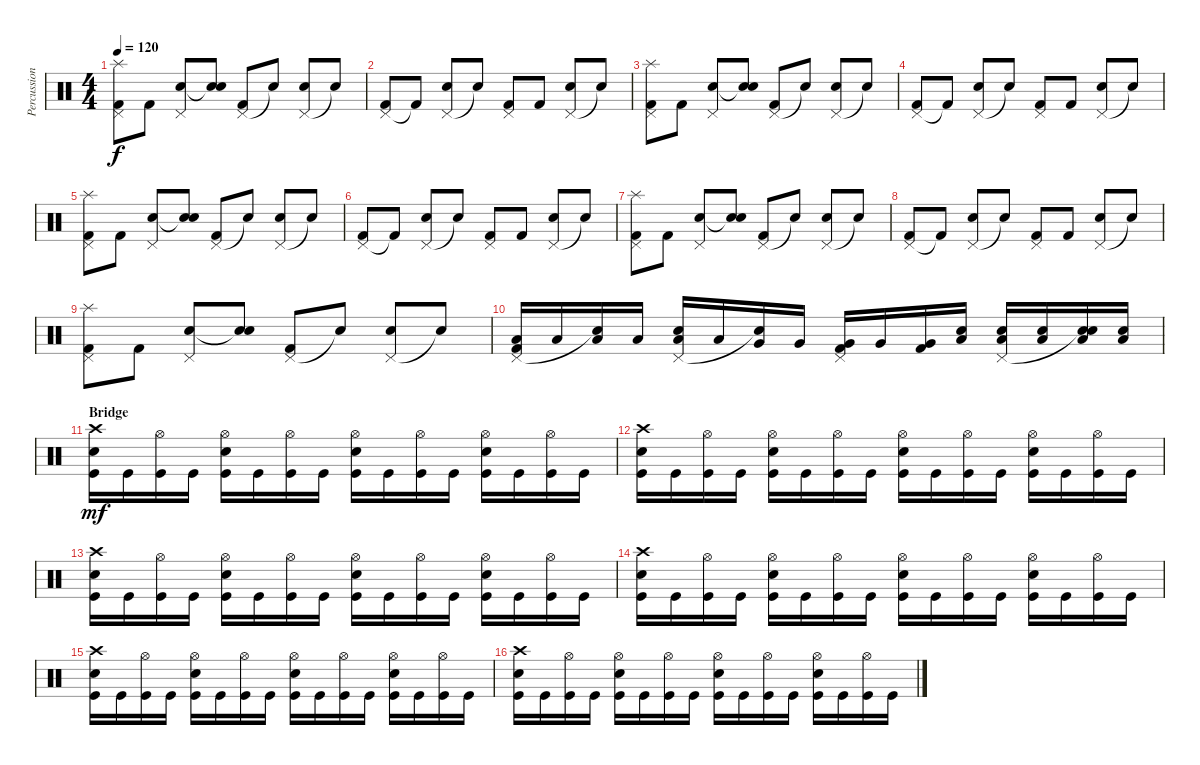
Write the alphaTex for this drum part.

\track ("Percussion" "Percussion") {instrument percussion}
\staff {score}
\articulation defaults
\ts (4 4)
\tempo 120
\clef neutral
\ks c
("Splash (hit)" "Pedal Hi-Hat (hit)" "Kick (hit) 2").8{dy f} "Kick (hit) 2".8 ("Pedal Hi-Hat (hit)" "Electric Snare (hit)").8 ("Snare (hit)" "Snare (hit)"{t}).8 ("Pedal Hi-Hat (hit)" "Kick (hit) 2").8 "Snare (hit)"{t}.8 ("Pedal Hi-Hat (hit)" "Electric Snare (hit)").8 "Snare (hit)"{t}.8 |
("Pedal Hi-Hat (hit)" "Kick (hit) 2").8 "Kick (hit) 2"{t}.8 ("Pedal Hi-Hat (hit)" "Electric Snare (hit)").8 "Snare (hit)"{t}.8 ("Pedal Hi-Hat (hit)" "Kick (hit) 2").8 "Kick (hit) 2".8 ("Pedal Hi-Hat (hit)" "Electric Snare (hit)").8 "Snare (hit)"{t}.8 |
("Splash (hit)" "Pedal Hi-Hat (hit)" "Kick (hit) 2").8 "Kick (hit) 2".8 ("Pedal Hi-Hat (hit)" "Electric Snare (hit)").8 ("Snare (hit)" "Snare (hit)"{t}).8 ("Pedal Hi-Hat (hit)" "Kick (hit) 2").8 "Snare (hit)"{t}.8 ("Pedal Hi-Hat (hit)" "Electric Snare (hit)").8 "Snare (hit)"{t}.8 |
("Pedal Hi-Hat (hit)" "Kick (hit) 2").8 "Kick (hit) 2"{t}.8 ("Pedal Hi-Hat (hit)" "Electric Snare (hit)").8 "Snare (hit)"{t}.8 ("Pedal Hi-Hat (hit)" "Kick (hit) 2").8 "Kick (hit) 2".8 ("Pedal Hi-Hat (hit)" "Electric Snare (hit)").8 "Snare (hit)"{t}.8 |
("Splash (hit)" "Pedal Hi-Hat (hit)" "Kick (hit) 2").8 "Kick (hit) 2".8 ("Pedal Hi-Hat (hit)" "Electric Snare (hit)").8 ("Snare (hit)" "Snare (hit)"{t}).8 ("Pedal Hi-Hat (hit)" "Kick (hit) 2").8 "Snare (hit)"{t}.8 ("Pedal Hi-Hat (hit)" "Electric Snare (hit)").8 "Snare (hit)"{t}.8 |
("Pedal Hi-Hat (hit)" "Kick (hit) 2").8 "Kick (hit) 2"{t}.8 ("Pedal Hi-Hat (hit)" "Electric Snare (hit)").8 "Snare (hit)"{t}.8 ("Pedal Hi-Hat (hit)" "Kick (hit) 2").8 "Kick (hit) 2".8 ("Pedal Hi-Hat (hit)" "Electric Snare (hit)").8 "Snare (hit)"{t}.8 |
("Splash (hit)" "Pedal Hi-Hat (hit)" "Kick (hit) 2").8 "Kick (hit) 2".8 ("Pedal Hi-Hat (hit)" "Electric Snare (hit)").8 ("Snare (hit)" "Snare (hit)"{t}).8 ("Pedal Hi-Hat (hit)" "Kick (hit) 2").8 "Snare (hit)"{t}.8 ("Pedal Hi-Hat (hit)" "Electric Snare (hit)").8 "Snare (hit)"{t}.8 |
("Pedal Hi-Hat (hit)" "Kick (hit) 2").8 "Kick (hit) 2"{t}.8 ("Pedal Hi-Hat (hit)" "Electric Snare (hit)").8 "Snare (hit)"{t}.8 ("Pedal Hi-Hat (hit)" "Kick (hit) 2").8 "Kick (hit) 2".8 ("Pedal Hi-Hat (hit)" "Electric Snare (hit)").8 "Snare (hit)"{t}.8 |
("Splash (hit)" "Pedal Hi-Hat (hit)" "Kick (hit) 2").8 "Kick (hit) 2".8 ("Pedal Hi-Hat (hit)" "Electric Snare (hit)").8 ("Snare (hit)" "Snare (hit)"{t}).8 ("Pedal Hi-Hat (hit)" "Kick (hit) 2").8 "Snare (hit)"{t}.8 ("Pedal Hi-Hat (hit)" "Electric Snare (hit)").8 "Snare (hit)"{t}.8 |
("Low Tom (hit)" "Pedal Hi-Hat (hit)" "Kick (hit) 2").16 "Low Tom (hit)".16 ("Low Tom (hit)" "Snare (hit)"{t}).16 "Low Tom (hit)".16 ("Low Tom (hit)" "Pedal Hi-Hat (hit)" "Electric Snare (hit)").16 "Low Tom (hit)".16 ("Very Low Tom (hit)" "Snare (hit)"{t}).16 "Very Low Tom (hit)".16 ("Very Low Tom (hit)" "Pedal Hi-Hat (hit)" "Kick (hit) 2").16 "Very Low Tom (hit)".16 ("Very Low Tom (hit)" "Kick (hit) 2").16 ("Low Floor Tom (hit)" "Electric Snare (hit)").16 ("Low Floor Tom (hit)" "Electric Snare (hit)" "Pedal Hi-Hat (hit)").16 ("Low Floor Tom (hit)" "Electric Snare (hit)").16 ("Low Floor Tom (hit)" "Electric Snare (hit)" "Snare (hit)"{t}).16 ("Low Floor Tom (hit)" "Electric Snare (hit)").16 |
\section ("" "Bridge")
("Kick (hit)" "Electric Snare (hit)" "Crash high (hit)").16{dy mf} "Kick (hit)".16 ("Kick (hit)" "Hi-Hat (open)").16 "Kick (hit)".16 ("Kick (hit)" "Electric Snare (hit)" "Hi-Hat (open)").16 "Kick (hit)".16 ("Kick (hit)" "Hi-Hat (open)").16 "Kick (hit)".16 ("Kick (hit)" "Electric Snare (hit)" "Hi-Hat (open)").16 "Kick (hit)".16 ("Kick (hit)" "Hi-Hat (open)").16 "Kick (hit)".16 ("Kick (hit)" "Electric Snare (hit)" "Hi-Hat (open)").16 "Kick (hit)".16 ("Kick (hit)" "Hi-Hat (open)").16 "Kick (hit)".16 |
("Kick (hit)" "Electric Snare (hit)" "Crash high (hit)").16 "Kick (hit)".16 ("Kick (hit)" "Hi-Hat (open)").16 "Kick (hit)".16 ("Kick (hit)" "Electric Snare (hit)" "Hi-Hat (open)").16 "Kick (hit)".16 ("Kick (hit)" "Hi-Hat (open)").16 "Kick (hit)".16 ("Kick (hit)" "Electric Snare (hit)" "Hi-Hat (open)").16 "Kick (hit)".16 ("Kick (hit)" "Hi-Hat (open)").16 "Kick (hit)".16 ("Kick (hit)" "Electric Snare (hit)" "Hi-Hat (open)").16 "Kick (hit)".16 ("Kick (hit)" "Hi-Hat (open)").16 "Kick (hit)".16 |
("Kick (hit)" "Electric Snare (hit)" "Crash high (hit)").16 "Kick (hit)".16 ("Kick (hit)" "Hi-Hat (open)").16 "Kick (hit)".16 ("Kick (hit)" "Electric Snare (hit)" "Hi-Hat (open)").16 "Kick (hit)".16 ("Kick (hit)" "Hi-Hat (open)").16 "Kick (hit)".16 ("Kick (hit)" "Electric Snare (hit)" "Hi-Hat (open)").16 "Kick (hit)".16 ("Kick (hit)" "Hi-Hat (open)").16 "Kick (hit)".16 ("Kick (hit)" "Electric Snare (hit)" "Hi-Hat (open)").16 "Kick (hit)".16 ("Kick (hit)" "Hi-Hat (open)").16 "Kick (hit)".16 |
("Kick (hit)" "Electric Snare (hit)" "Crash high (hit)").16 "Kick (hit)".16 ("Kick (hit)" "Hi-Hat (open)").16 "Kick (hit)".16 ("Kick (hit)" "Electric Snare (hit)" "Hi-Hat (open)").16 "Kick (hit)".16 ("Kick (hit)" "Hi-Hat (open)").16 "Kick (hit)".16 ("Kick (hit)" "Electric Snare (hit)" "Hi-Hat (open)").16 "Kick (hit)".16 ("Kick (hit)" "Hi-Hat (open)").16 "Kick (hit)".16 ("Kick (hit)" "Electric Snare (hit)" "Hi-Hat (open)").16 "Kick (hit)".16 ("Kick (hit)" "Hi-Hat (open)").16 "Kick (hit)".16 |
("Kick (hit)" "Electric Snare (hit)" "Crash high (hit)").16 "Kick (hit)".16 ("Kick (hit)" "Hi-Hat (open)").16 "Kick (hit)".16 ("Kick (hit)" "Electric Snare (hit)" "Hi-Hat (open)").16 "Kick (hit)".16 ("Kick (hit)" "Hi-Hat (open)").16 "Kick (hit)".16 ("Kick (hit)" "Electric Snare (hit)" "Hi-Hat (open)").16 "Kick (hit)".16 ("Kick (hit)" "Hi-Hat (open)").16 "Kick (hit)".16 ("Kick (hit)" "Electric Snare (hit)" "Hi-Hat (open)").16 "Kick (hit)".16 ("Kick (hit)" "Hi-Hat (open)").16 "Kick (hit)".16 |
("Kick (hit)" "Electric Snare (hit)" "Crash high (hit)").16 "Kick (hit)".16 ("Kick (hit)" "Hi-Hat (open)").16 "Kick (hit)".16 ("Kick (hit)" "Electric Snare (hit)" "Hi-Hat (open)").16 "Kick (hit)".16 ("Kick (hit)" "Hi-Hat (open)").16 "Kick (hit)".16 ("Kick (hit)" "Electric Snare (hit)" "Hi-Hat (open)").16 "Kick (hit)".16 ("Kick (hit)" "Hi-Hat (open)").16 "Kick (hit)".16 ("Kick (hit)" "Electric Snare (hit)" "Hi-Hat (open)").16 "Kick (hit)".16 ("Kick (hit)" "Hi-Hat (open)").16 "Kick (hit)".16
